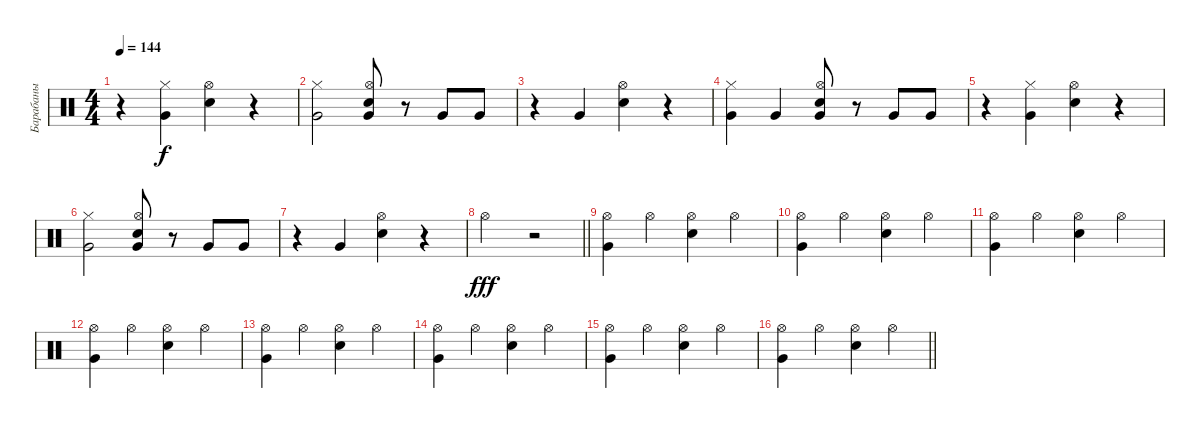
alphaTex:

\track ("Барабаны" "Барабаны") {instrument percussion}
\staff {score}
\articulation defaults
\ts (4 4)
\tempo 144
\clef neutral
\ks c
r.4{dy f} ("Very Low Tom (hit)" "Hi-Hat (closed)").4 ("Snare (hit) 2" "Hi-Hat (open)").4 r.4 |
("Hi-Hat (closed)" "Very Low Tom (hit)").2 ("Electric Snare (hit)" "Hi-Hat (open)" "Very Low Tom (hit)").8 r.8 "Very Low Tom (hit)".8 "Very Low Tom (hit)".8 |
r.4 "Very Low Tom (hit)".4 ("Snare (hit) 2" "Hi-Hat (open)").4 r.4 |
("Hi-Hat (closed)" "Very Low Tom (hit)").4 "Very Low Tom (hit)".4 ("Electric Snare (hit)" "Hi-Hat (open)" "Very Low Tom (hit)").8 r.8 "Very Low Tom (hit)".8 "Very Low Tom (hit)".8 |
r.4 ("Very Low Tom (hit)" "Hi-Hat (closed)").4 ("Snare (hit) 2" "Hi-Hat (open)").4 r.4 |
("Hi-Hat (closed)" "Very Low Tom (hit)").2 ("Electric Snare (hit)" "Hi-Hat (open)" "Very Low Tom (hit)").8 r.8 "Very Low Tom (hit)".8 "Very Low Tom (hit)".8 |
r.4 "Very Low Tom (hit)".4 ("Snare (hit) 2" "Hi-Hat (open)").4 r.4 |
\barLineRight lightlight "Hi-Hat (open)".2{dy fff}
r.2 |
("Hi-Hat (open)" "Very Low Tom (hit)").4 "Hi-Hat (open)".4 ("Hi-Hat (open)" "Snare (hit) 2").4 "Hi-Hat (open)".4 |
("Hi-Hat (open)" "Very Low Tom (hit)").4 "Hi-Hat (open)".4 ("Hi-Hat (open)" "Snare (hit) 2").4 "Hi-Hat (open)".4 |
("Hi-Hat (open)" "Very Low Tom (hit)").4 "Hi-Hat (open)".4 ("Hi-Hat (open)" "Snare (hit) 2").4 "Hi-Hat (open)".4 |
("Hi-Hat (open)" "Very Low Tom (hit)").4 "Hi-Hat (open)".4 ("Hi-Hat (open)" "Snare (hit) 2").4 "Hi-Hat (open)".4 |
("Hi-Hat (open)" "Very Low Tom (hit)").4 "Hi-Hat (open)".4 ("Hi-Hat (open)" "Snare (hit) 2").4 "Hi-Hat (open)".4 |
("Hi-Hat (open)" "Very Low Tom (hit)").4 "Hi-Hat (open)".4 ("Hi-Hat (open)" "Snare (hit) 2").4 "Hi-Hat (open)".4 |
("Hi-Hat (open)" "Very Low Tom (hit)").4 "Hi-Hat (open)".4 ("Hi-Hat (open)" "Snare (hit) 2").4 "Hi-Hat (open)".4 |
\barLineRight lightlight
("Hi-Hat (open)" "Very Low Tom (hit)").4 "Hi-Hat (open)".4 ("Hi-Hat (open)" "Snare (hit) 2").4 "Hi-Hat (open)".4
